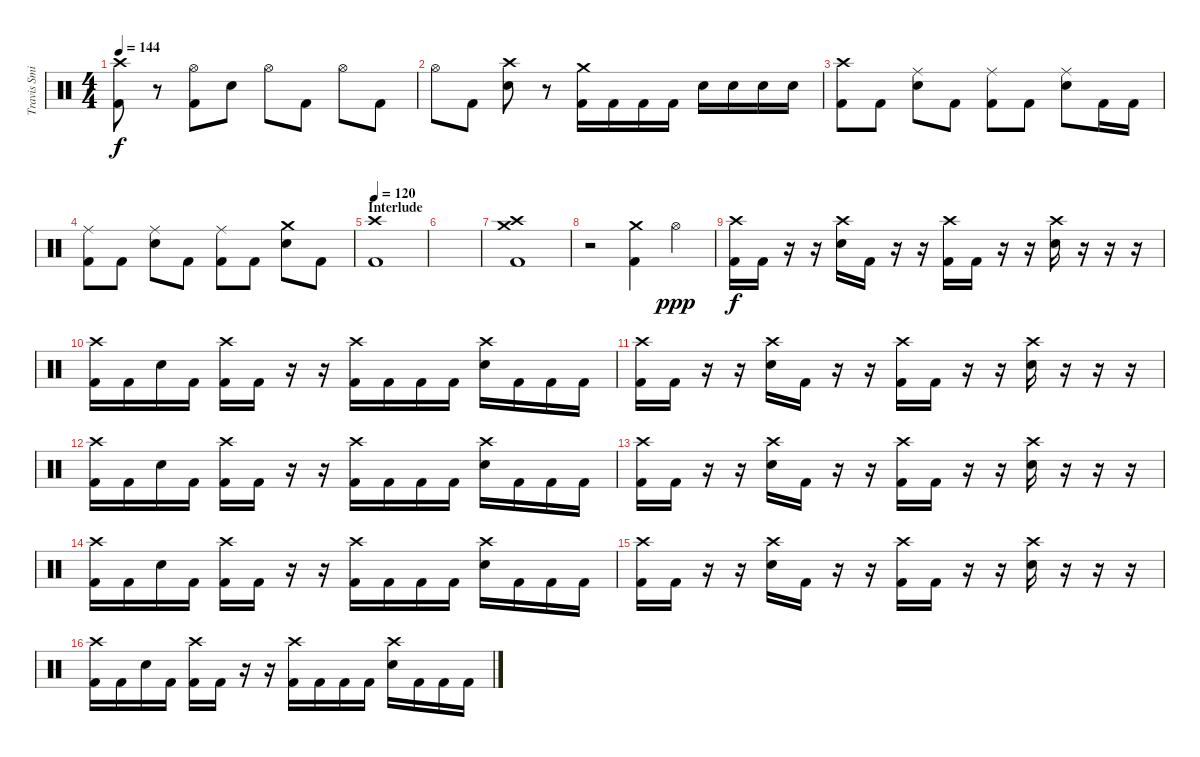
\track ("Travis Smith" "Travis Smi") {instrument percussion}
\staff {score}
\articulation defaults
\ts (4 4)
\tempo 144
\clef neutral
\ks c
("Crash high (hit)" "Kick (hit) 2").8{dy f} r.8 ("Hi-Hat (open)" "Kick (hit) 2").8 "Electric Snare (hit)".8 "Hi-Hat (open)".8 "Kick (hit) 2".8 "Hi-Hat (open)".8 "Kick (hit) 2".8 |
"Hi-Hat (open)".8 "Kick (hit) 2".8 ("Crash high (hit)" "Electric Snare (hit)").8 r.8 ("Crash medium (hit)" "Kick (hit) 2").16 "Kick (hit) 2".16 "Kick (hit) 2".16 "Kick (hit) 2".16 "Electric Snare (hit)".16 "Electric Snare (hit)".16 "Electric Snare (hit)".16 "Electric Snare (hit)".16 |
("Crash high (hit)" "Kick (hit) 2").8 "Kick (hit) 2".8 ("Ride (middle)" "Electric Snare (hit)").8 "Kick (hit) 2".8 ("Ride (middle)" "Kick (hit) 2").8 "Kick (hit) 2".8 ("Ride (middle)" "Electric Snare (hit)").8 "Kick (hit) 2".16 "Kick (hit) 2".16 |
("Ride (middle)" "Kick (hit) 2").8 "Kick (hit) 2".8 ("Ride (middle)" "Electric Snare (hit)").8 "Kick (hit) 2".8 ("Ride (middle)" "Kick (hit) 2").8 "Kick (hit) 2".8 ("Crash medium (hit)" "Electric Snare (hit)").8 "Kick (hit) 2".8 |
\section ("" "Interlude")
\tempo 120
("Crash high (hit)" "Kick (hit) 2").1 |
|
("Crash medium (hit)" "Crash high (hit)" "Kick (hit) 2").1 |
r.2 ("Crash medium (hit)" "Kick (hit) 2").4 "Hi-Hat (open)".4{dy ppp} |
("Crash high (hit)" "Kick (hit) 2").16{dy f} "Kick (hit) 2".16 r.16 r.16 ("Crash high (hit)" "Electric Snare (hit)").16 "Kick (hit) 2".16 r.16 r.16 ("Crash high (hit)" "Kick (hit) 2").16 "Kick (hit) 2".16 r.16 r.16 ("Crash high (hit)" "Electric Snare (hit)").16 r.16 r.16 r.16 |
("Crash high (hit)" "Kick (hit) 2").16 "Kick (hit) 2".16 "Electric Snare (hit)".16 "Kick (hit) 2".16 ("Crash high (hit)" "Kick (hit) 2").16 "Kick (hit) 2".16 r.16 r.16 ("Crash high (hit)" "Kick (hit) 2").16 "Kick (hit) 2".16 "Kick (hit) 2".16 "Kick (hit) 2".16 ("Crash high (hit)" "Electric Snare (hit)").16 "Kick (hit) 2".16 "Kick (hit) 2".16 "Kick (hit) 2".16 |
("Crash high (hit)" "Kick (hit) 2").16 "Kick (hit) 2".16 r.16 r.16 ("Crash high (hit)" "Electric Snare (hit)").16 "Kick (hit) 2".16 r.16 r.16 ("Crash high (hit)" "Kick (hit) 2").16 "Kick (hit) 2".16 r.16 r.16 ("Crash high (hit)" "Electric Snare (hit)").16 r.16 r.16 r.16 |
("Crash high (hit)" "Kick (hit) 2").16 "Kick (hit) 2".16 "Electric Snare (hit)".16 "Kick (hit) 2".16 ("Crash high (hit)" "Kick (hit) 2").16 "Kick (hit) 2".16 r.16 r.16 ("Crash high (hit)" "Kick (hit) 2").16 "Kick (hit) 2".16 "Kick (hit) 2".16 "Kick (hit) 2".16 ("Crash high (hit)" "Electric Snare (hit)").16 "Kick (hit) 2".16 "Kick (hit) 2".16 "Kick (hit) 2".16 |
("Crash high (hit)" "Kick (hit) 2").16 "Kick (hit) 2".16 r.16 r.16 ("Crash high (hit)" "Electric Snare (hit)").16 "Kick (hit) 2".16 r.16 r.16 ("Crash high (hit)" "Kick (hit) 2").16 "Kick (hit) 2".16 r.16 r.16 ("Crash high (hit)" "Electric Snare (hit)").16 r.16 r.16 r.16 |
("Crash high (hit)" "Kick (hit) 2").16 "Kick (hit) 2".16 "Electric Snare (hit)".16 "Kick (hit) 2".16 ("Crash high (hit)" "Kick (hit) 2").16 "Kick (hit) 2".16 r.16 r.16 ("Crash high (hit)" "Kick (hit) 2").16 "Kick (hit) 2".16 "Kick (hit) 2".16 "Kick (hit) 2".16 ("Crash high (hit)" "Electric Snare (hit)").16 "Kick (hit) 2".16 "Kick (hit) 2".16 "Kick (hit) 2".16 |
("Crash high (hit)" "Kick (hit) 2").16 "Kick (hit) 2".16 r.16 r.16 ("Crash high (hit)" "Electric Snare (hit)").16 "Kick (hit) 2".16 r.16 r.16 ("Crash high (hit)" "Kick (hit) 2").16 "Kick (hit) 2".16 r.16 r.16 ("Crash high (hit)" "Electric Snare (hit)").16 r.16 r.16 r.16 |
("Crash high (hit)" "Kick (hit) 2").16 "Kick (hit) 2".16 "Electric Snare (hit)".16 "Kick (hit) 2".16 ("Crash high (hit)" "Kick (hit) 2").16 "Kick (hit) 2".16 r.16 r.16 ("Crash high (hit)" "Kick (hit) 2").16 "Kick (hit) 2".16 "Kick (hit) 2".16 "Kick (hit) 2".16 ("Crash high (hit)" "Electric Snare (hit)").16 "Kick (hit) 2".16 "Kick (hit) 2".16 "Kick (hit) 2".16
